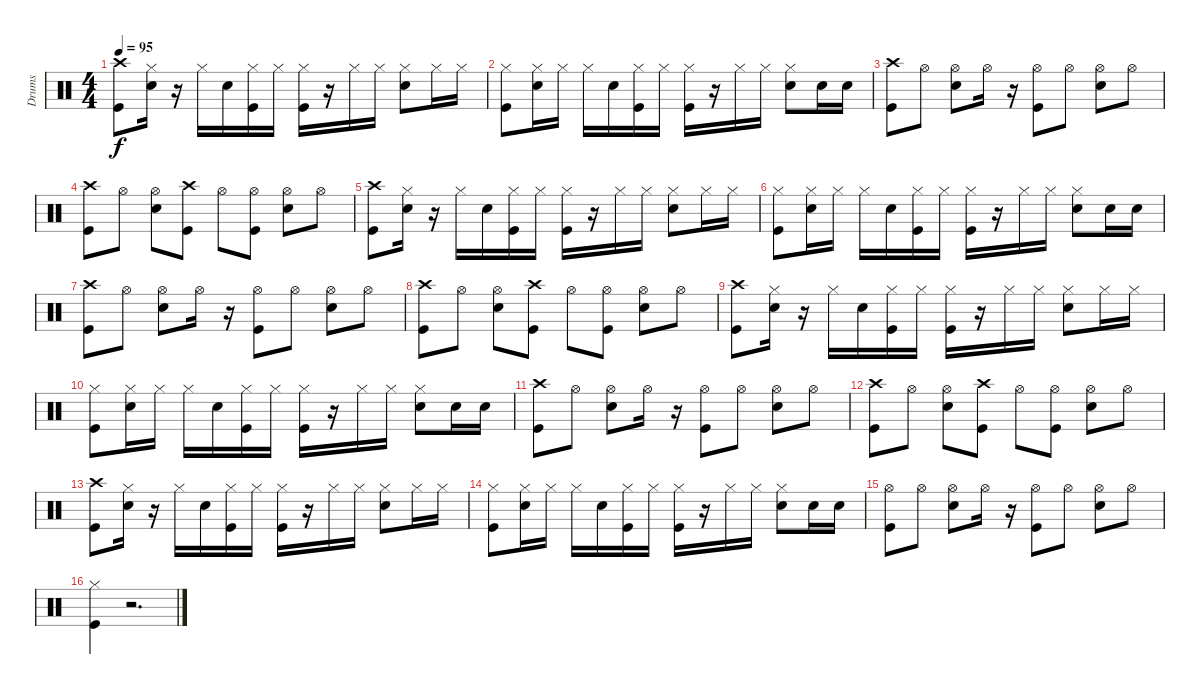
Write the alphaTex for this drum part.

\track ("Drums" "Drums") {instrument percussion}
\staff {score}
\articulation defaults
\ts (4 4)
\tempo 95
\clef neutral
\ks c
("Crash high (hit)" "Kick (hit)").8{dy f} ("Hi-Hat (closed)" "Electric Snare (hit)").16 r.16 "Hi-Hat (closed)".16 "Electric Snare (hit)".16 ("Hi-Hat (closed)" "Kick (hit)").16 "Hi-Hat (closed)".16 ("Hi-Hat (closed)" "Kick (hit)").16 r.16 "Hi-Hat (closed)".16 "Hi-Hat (closed)".16 ("Hi-Hat (closed)" "Electric Snare (hit)").8 "Hi-Hat (closed)".16 "Hi-Hat (closed)".16 |
("Hi-Hat (closed)" "Kick (hit)").8 ("Hi-Hat (closed)" "Electric Snare (hit)").16 "Hi-Hat (closed)".16 "Hi-Hat (closed)".16 "Electric Snare (hit)".16 ("Hi-Hat (closed)" "Kick (hit)").16 "Hi-Hat (closed)".16 ("Hi-Hat (closed)" "Kick (hit)").16 r.16 "Hi-Hat (closed)".16 "Hi-Hat (closed)".16 ("Hi-Hat (closed)" "Electric Snare (hit)").8 "Electric Snare (hit)".16 "Electric Snare (hit)".16 |
("Crash high (hit)" "Kick (hit)").8 "Hi-Hat (open)".8 ("Hi-Hat (open)" "Electric Snare (hit)").8 "Hi-Hat (open)".16 r.16 ("Hi-Hat (open)" "Kick (hit)").8 "Hi-Hat (open)".8 ("Hi-Hat (open)" "Electric Snare (hit)").8 "Hi-Hat (open)".8 |
("Crash high (hit)" "Kick (hit)").8 "Hi-Hat (open)".8 ("Hi-Hat (open)" "Electric Snare (hit)").8 ("Crash high (hit)" "Kick (hit)").8 "Hi-Hat (open)".8 ("Hi-Hat (open)" "Kick (hit)").8 ("Hi-Hat (open)" "Electric Snare (hit)").8 "Hi-Hat (open)".8 |
("Crash high (hit)" "Kick (hit)").8 ("Hi-Hat (closed)" "Electric Snare (hit)").16 r.16 "Hi-Hat (closed)".16 "Electric Snare (hit)".16 ("Hi-Hat (closed)" "Kick (hit)").16 "Hi-Hat (closed)".16 ("Hi-Hat (closed)" "Kick (hit)").16 r.16 "Hi-Hat (closed)".16 "Hi-Hat (closed)".16 ("Hi-Hat (closed)" "Electric Snare (hit)").8 "Hi-Hat (closed)".16 "Hi-Hat (closed)".16 |
("Hi-Hat (closed)" "Kick (hit)").8 ("Hi-Hat (closed)" "Electric Snare (hit)").16 "Hi-Hat (closed)".16 "Hi-Hat (closed)".16 "Electric Snare (hit)".16 ("Hi-Hat (closed)" "Kick (hit)").16 "Hi-Hat (closed)".16 ("Hi-Hat (closed)" "Kick (hit)").16 r.16 "Hi-Hat (closed)".16 "Hi-Hat (closed)".16 ("Hi-Hat (closed)" "Electric Snare (hit)").8 "Electric Snare (hit)".16 "Electric Snare (hit)".16 |
("Crash high (hit)" "Kick (hit)").8 "Hi-Hat (open)".8 ("Hi-Hat (open)" "Electric Snare (hit)").8 "Hi-Hat (open)".16 r.16 ("Hi-Hat (open)" "Kick (hit)").8 "Hi-Hat (open)".8 ("Hi-Hat (open)" "Electric Snare (hit)").8 "Hi-Hat (open)".8 |
("Crash high (hit)" "Kick (hit)").8 "Hi-Hat (open)".8 ("Hi-Hat (open)" "Electric Snare (hit)").8 ("Crash high (hit)" "Kick (hit)").8 "Hi-Hat (open)".8 ("Hi-Hat (open)" "Kick (hit)").8 ("Hi-Hat (open)" "Electric Snare (hit)").8 "Hi-Hat (open)".8 |
("Crash high (hit)" "Kick (hit)").8 ("Hi-Hat (closed)" "Electric Snare (hit)").16 r.16 "Hi-Hat (closed)".16 "Electric Snare (hit)".16 ("Hi-Hat (closed)" "Kick (hit)").16 "Hi-Hat (closed)".16 ("Hi-Hat (closed)" "Kick (hit)").16 r.16 "Hi-Hat (closed)".16 "Hi-Hat (closed)".16 ("Hi-Hat (closed)" "Electric Snare (hit)").8 "Hi-Hat (closed)".16 "Hi-Hat (closed)".16 |
("Hi-Hat (closed)" "Kick (hit)").8 ("Hi-Hat (closed)" "Electric Snare (hit)").16 "Hi-Hat (closed)".16 "Hi-Hat (closed)".16 "Electric Snare (hit)".16 ("Hi-Hat (closed)" "Kick (hit)").16 "Hi-Hat (closed)".16 ("Hi-Hat (closed)" "Kick (hit)").16 r.16 "Hi-Hat (closed)".16 "Hi-Hat (closed)".16 ("Hi-Hat (closed)" "Electric Snare (hit)").8 "Electric Snare (hit)".16 "Electric Snare (hit)".16 |
("Crash high (hit)" "Kick (hit)").8 "Hi-Hat (open)".8 ("Hi-Hat (open)" "Electric Snare (hit)").8 "Hi-Hat (open)".16 r.16 ("Hi-Hat (open)" "Kick (hit)").8 "Hi-Hat (open)".8 ("Hi-Hat (open)" "Electric Snare (hit)").8 "Hi-Hat (open)".8 |
("Crash high (hit)" "Kick (hit)").8 "Hi-Hat (open)".8 ("Hi-Hat (open)" "Electric Snare (hit)").8 ("Crash high (hit)" "Kick (hit)").8 "Hi-Hat (open)".8 ("Hi-Hat (open)" "Kick (hit)").8 ("Hi-Hat (open)" "Electric Snare (hit)").8 "Hi-Hat (open)".8 |
("Crash high (hit)" "Kick (hit)").8 ("Hi-Hat (closed)" "Electric Snare (hit)").16 r.16 "Hi-Hat (closed)".16 "Electric Snare (hit)".16 ("Hi-Hat (closed)" "Kick (hit)").16 "Hi-Hat (closed)".16 ("Hi-Hat (closed)" "Kick (hit)").16 r.16 "Hi-Hat (closed)".16 "Hi-Hat (closed)".16 ("Hi-Hat (closed)" "Electric Snare (hit)").8 "Hi-Hat (closed)".16 "Hi-Hat (closed)".16 |
("Hi-Hat (closed)" "Kick (hit)").8 ("Hi-Hat (closed)" "Electric Snare (hit)").16 "Hi-Hat (closed)".16 "Hi-Hat (closed)".16 "Electric Snare (hit)".16 ("Hi-Hat (closed)" "Kick (hit)").16 "Hi-Hat (closed)".16 ("Hi-Hat (closed)" "Kick (hit)").16 r.16 "Hi-Hat (closed)".16 "Hi-Hat (closed)".16 ("Hi-Hat (closed)" "Electric Snare (hit)").8 "Electric Snare (hit)".16 "Electric Snare (hit)".16 |
("Hi-Hat (open)" "Kick (hit)").8 "Hi-Hat (open)".8 ("Hi-Hat (open)" "Electric Snare (hit)").8 "Hi-Hat (open)".16 r.16 ("Hi-Hat (open)" "Kick (hit)").8 "Hi-Hat (open)".8 ("Hi-Hat (open)" "Electric Snare (hit)").8 "Hi-Hat (open)".8 |
("Hi-Hat (closed)" "Kick (hit)").4 r.2{d}
